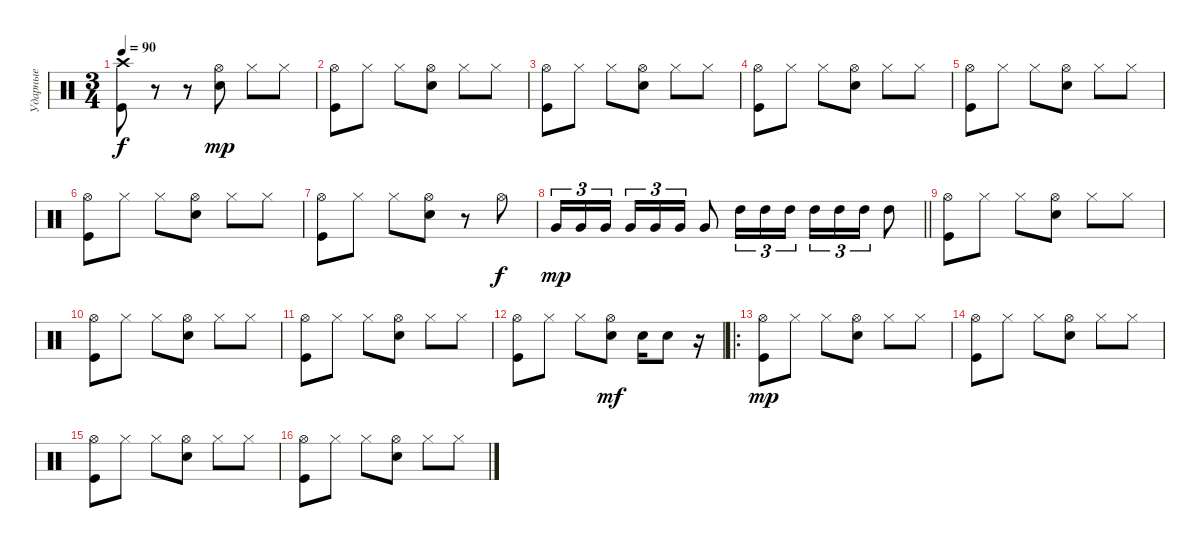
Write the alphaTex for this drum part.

\track ("Ударные" "Ударные") {instrument percussion}
\staff {score}
\articulation defaults
\ts (3 4)
\tempo 90
\clef neutral
\ks c
("Kick (hit)" "Crash high (hit)").8{dy f} r.8 r.8 ("Snare (hit) 2" "Hi-Hat (open)").8{dy mp} "Hi-Hat (closed)".8 "Hi-Hat (closed)".8 |
("Kick (hit)" "Hi-Hat (open)").8 "Hi-Hat (closed)".8 "Hi-Hat (closed)".8 ("Snare (hit) 2" "Hi-Hat (open)").8 "Hi-Hat (closed)".8 "Hi-Hat (closed)".8 |
("Kick (hit)" "Hi-Hat (open)").8 "Hi-Hat (closed)".8 "Hi-Hat (closed)".8 ("Snare (hit) 2" "Hi-Hat (open)").8 "Hi-Hat (closed)".8 "Hi-Hat (closed)".8 |
("Kick (hit)" "Hi-Hat (open)").8 "Hi-Hat (closed)".8 "Hi-Hat (closed)".8 ("Snare (hit) 2" "Hi-Hat (open)").8 "Hi-Hat (closed)".8 "Hi-Hat (closed)".8 |
("Kick (hit)" "Hi-Hat (open)").8 "Hi-Hat (closed)".8 "Hi-Hat (closed)".8 ("Snare (hit) 2" "Hi-Hat (open)").8 "Hi-Hat (closed)".8 "Hi-Hat (closed)".8 |
("Kick (hit)" "Hi-Hat (open)").8 "Hi-Hat (closed)".8 "Hi-Hat (closed)".8 ("Snare (hit) 2" "Hi-Hat (open)").8 "Hi-Hat (closed)".8 "Hi-Hat (closed)".8 |
("Kick (hit)" "Hi-Hat (open)").8 "Hi-Hat (closed)".8 "Hi-Hat (closed)".8 ("Snare (hit) 2" "Hi-Hat (open)").8 r.8 "Hi-Hat (open)".8{dy f} |
\barLineRight lightlight "Very Low Tom (hit)".16{tu (3 2) dy mp} "Very Low Tom (hit)".16{tu (3 2)} "Very Low Tom (hit)".16{tu (3 2)} "Very Low Tom (hit)".16{tu (3 2)} "Very Low Tom (hit)".16{tu (3 2)} "Very Low Tom (hit)".16{tu (3 2)} "Very Low Tom (hit)".8 "High Tom (hit)".16{tu (3 2)} "High Tom (hit)".16{tu (3 2)} "High Tom (hit)".16{tu (3 2)} "High Tom (hit)".16{tu (3 2)} "High Tom (hit)".16{tu (3 2)} "High Tom (hit)".16{tu (3 2)} "High Tom (hit)".8
|
("Kick (hit)" "Hi-Hat (open)").8 "Hi-Hat (closed)".8 "Hi-Hat (closed)".8 ("Snare (hit) 2" "Hi-Hat (open)").8 "Hi-Hat (closed)".8 "Hi-Hat (closed)".8 |
("Kick (hit)" "Hi-Hat (open)").8 "Hi-Hat (closed)".8 "Hi-Hat (closed)".8 ("Snare (hit) 2" "Hi-Hat (open)").8 "Hi-Hat (closed)".8 "Hi-Hat (closed)".8 |
("Kick (hit)" "Hi-Hat (open)").8 "Hi-Hat (closed)".8 "Hi-Hat (closed)".8 ("Snare (hit) 2" "Hi-Hat (open)").8 "Hi-Hat (closed)".8 "Hi-Hat (closed)".8 |
("Kick (hit)" "Hi-Hat (open)").8 "Hi-Hat (closed)".8 "Hi-Hat (closed)".8 ("Snare (hit) 2" "Hi-Hat (open)").8{dy mf} "Electric Snare (hit)".16 "Electric Snare (hit)".8 r.16 |
\ro
("Kick (hit)" "Hi-Hat (open)").8{dy mp} "Hi-Hat (closed)".8 "Hi-Hat (closed)".8 ("Snare (hit) 2" "Hi-Hat (open)").8 "Hi-Hat (closed)".8 "Hi-Hat (closed)".8 |
("Kick (hit)" "Hi-Hat (open)").8 "Hi-Hat (closed)".8 "Hi-Hat (closed)".8 ("Snare (hit) 2" "Hi-Hat (open)").8 "Hi-Hat (closed)".8 "Hi-Hat (closed)".8 |
("Kick (hit)" "Hi-Hat (open)").8 "Hi-Hat (closed)".8 "Hi-Hat (closed)".8 ("Snare (hit) 2" "Hi-Hat (open)").8 "Hi-Hat (closed)".8 "Hi-Hat (closed)".8 |
("Kick (hit)" "Hi-Hat (open)").8 "Hi-Hat (closed)".8 "Hi-Hat (closed)".8 ("Snare (hit) 2" "Hi-Hat (open)").8 "Hi-Hat (closed)".8 "Hi-Hat (closed)".8
